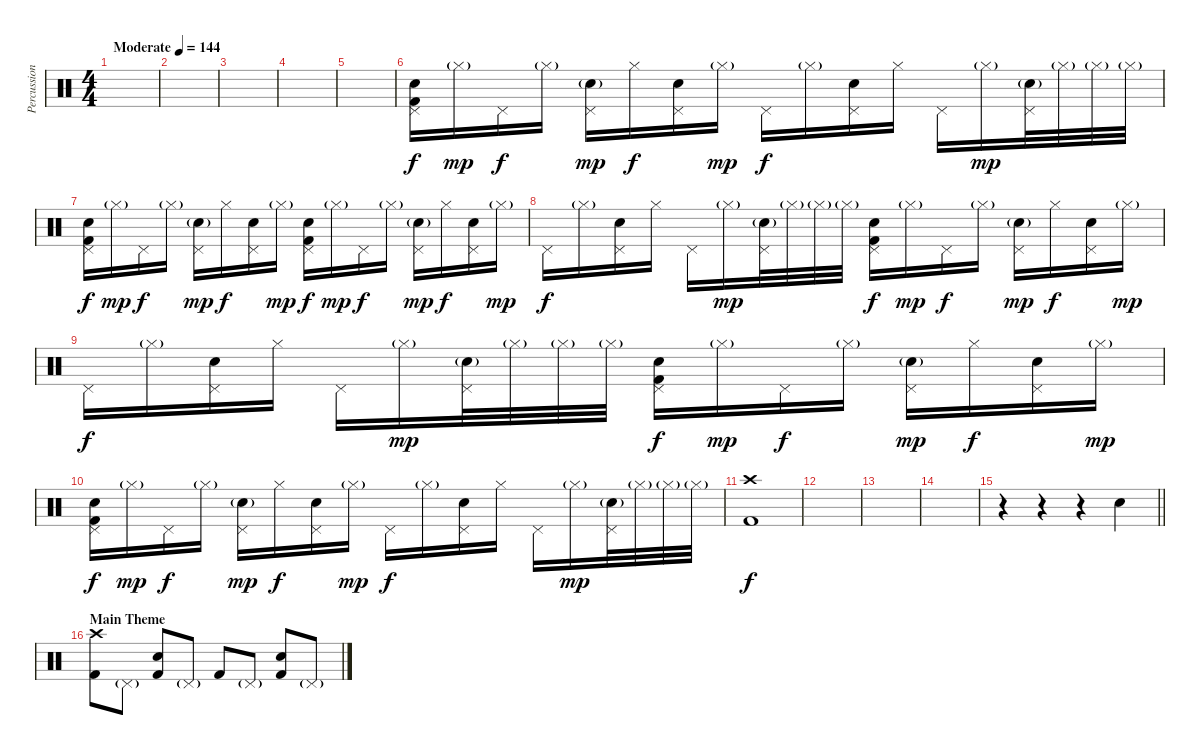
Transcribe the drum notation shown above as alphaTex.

\track ("Percussion" "Percussion") {instrument percussion}
\staff {score}
\articulation defaults
\ts (4 4)
\tempo (144 "Moderate")
\clef neutral
\ks c
|
|
|
|
|
("Pedal Hi-Hat (hit)" "Snare (hit) 2" "Kick (hit) 2").16 "Hi-Hat (closed)"{g}.16{dy mp} "Pedal Hi-Hat (hit)".16{dy f} "Hi-Hat (closed)"{g}.16 ("Pedal Hi-Hat (hit)" "Snare (hit) 2"{g}).16{dy mp} "Hi-Hat (closed)".16{dy f} ("Pedal Hi-Hat (hit)" "Snare (hit) 2").16 "Hi-Hat (closed)"{g}.16{dy mp} "Pedal Hi-Hat (hit)".16{dy f} "Hi-Hat (closed)"{g}.16 ("Pedal Hi-Hat (hit)" "Snare (hit) 2").16 "Hi-Hat (closed)".16 "Pedal Hi-Hat (hit)".16 "Hi-Hat (closed)"{g}.16{dy mp} ("Pedal Hi-Hat (hit)" "Snare (hit) 2"{g}).32 "Hi-Hat (closed)"{g}.32 "Hi-Hat (closed)"{g}.32 "Hi-Hat (closed)"{g}.32 |
("Pedal Hi-Hat (hit)" "Snare (hit) 2" "Kick (hit) 2").16{dy f} "Hi-Hat (closed)"{g}.16{dy mp} "Pedal Hi-Hat (hit)".16{dy f} "Hi-Hat (closed)"{g}.16 ("Pedal Hi-Hat (hit)" "Snare (hit) 2"{g}).16{dy mp} "Hi-Hat (closed)".16{dy f} ("Pedal Hi-Hat (hit)" "Snare (hit) 2").16 "Hi-Hat (closed)"{g}.16{dy mp} ("Pedal Hi-Hat (hit)" "Snare (hit) 2" "Kick (hit) 2").16{dy f} "Hi-Hat (closed)"{g}.16{dy mp} "Pedal Hi-Hat (hit)".16{dy f} "Hi-Hat (closed)"{g}.16 ("Pedal Hi-Hat (hit)" "Snare (hit) 2"{g}).16{dy mp} "Hi-Hat (closed)".16{dy f} ("Pedal Hi-Hat (hit)" "Snare (hit) 2").16 "Hi-Hat (closed)"{g}.16{dy mp} |
"Pedal Hi-Hat (hit)".16{dy f} "Hi-Hat (closed)"{g}.16 ("Pedal Hi-Hat (hit)" "Snare (hit) 2").16 "Hi-Hat (closed)".16 "Pedal Hi-Hat (hit)".16 "Hi-Hat (closed)"{g}.16{dy mp} ("Pedal Hi-Hat (hit)" "Snare (hit) 2"{g}).32 "Hi-Hat (closed)"{g}.32 "Hi-Hat (closed)"{g}.32 "Hi-Hat (closed)"{g}.32 ("Pedal Hi-Hat (hit)" "Snare (hit) 2" "Kick (hit) 2").16{dy f} "Hi-Hat (closed)"{g}.16{dy mp} "Pedal Hi-Hat (hit)".16{dy f} "Hi-Hat (closed)"{g}.16 ("Pedal Hi-Hat (hit)" "Snare (hit) 2"{g}).16{dy mp} "Hi-Hat (closed)".16{dy f} ("Pedal Hi-Hat (hit)" "Snare (hit) 2").16 "Hi-Hat (closed)"{g}.16{dy mp} |
"Pedal Hi-Hat (hit)".16{dy f} "Hi-Hat (closed)"{g}.16 ("Pedal Hi-Hat (hit)" "Snare (hit) 2").16 "Hi-Hat (closed)".16 "Pedal Hi-Hat (hit)".16 "Hi-Hat (closed)"{g}.16{dy mp} ("Pedal Hi-Hat (hit)" "Snare (hit) 2"{g}).32 "Hi-Hat (closed)"{g}.32 "Hi-Hat (closed)"{g}.32 "Hi-Hat (closed)"{g}.32 ("Pedal Hi-Hat (hit)" "Snare (hit) 2" "Kick (hit) 2").16{dy f} "Hi-Hat (closed)"{g}.16{dy mp} "Pedal Hi-Hat (hit)".16{dy f} "Hi-Hat (closed)"{g}.16 ("Pedal Hi-Hat (hit)" "Snare (hit) 2"{g}).16{dy mp} "Hi-Hat (closed)".16{dy f} ("Pedal Hi-Hat (hit)" "Snare (hit) 2").16 "Hi-Hat (closed)"{g}.16{dy mp} |
("Pedal Hi-Hat (hit)" "Snare (hit) 2" "Kick (hit) 2").16{dy f} "Hi-Hat (closed)"{g}.16{dy mp} "Pedal Hi-Hat (hit)".16{dy f} "Hi-Hat (closed)"{g}.16 ("Pedal Hi-Hat (hit)" "Snare (hit) 2"{g}).16{dy mp} "Hi-Hat (closed)".16{dy f} ("Pedal Hi-Hat (hit)" "Snare (hit) 2").16 "Hi-Hat (closed)"{g}.16{dy mp} "Pedal Hi-Hat (hit)".16{dy f} "Hi-Hat (closed)"{g}.16 ("Pedal Hi-Hat (hit)" "Snare (hit) 2").16 "Hi-Hat (closed)".16 "Pedal Hi-Hat (hit)".16 "Hi-Hat (closed)"{g}.16{dy mp} ("Pedal Hi-Hat (hit)" "Snare (hit) 2"{g}).32 "Hi-Hat (closed)"{g}.32 "Hi-Hat (closed)"{g}.32 "Hi-Hat (closed)"{g}.32 |
("Crash high (hit)" "Kick (hit) 2").1{dy f} |
|
|
|
\barLineRight lightlight
r.4 r.4 r.4 "Electric Snare (hit)".4 |
\section ("" "Main Theme")
("Crash high (hit)" "Kick (hit) 2").8 "Pedal Hi-Hat (hit)"{g}.8 ("Electric Snare (hit)" "Kick (hit) 2").8 "Pedal Hi-Hat (hit)"{g}.8 "Kick (hit) 2".8 "Pedal Hi-Hat (hit)"{g}.8 ("Electric Snare (hit)" "Kick (hit) 2").8 "Pedal Hi-Hat (hit)"{g}.8
